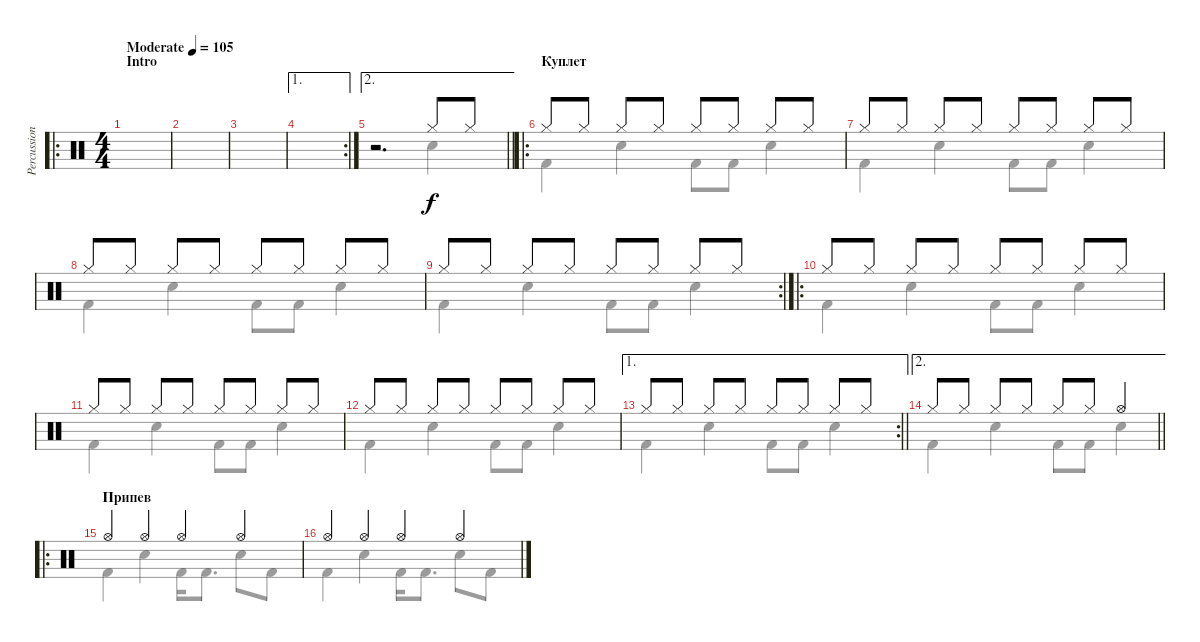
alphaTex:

\track ("Percussion" "Percussion") {instrument percussion}
\staff {score}
\articulation defaults
\voice
\ro
\ts (4 4)
\section ("" "Intro")
\tempo (105 "Moderate")
\clef neutral
\ks c
|
|
|
\ae 1
\rc 2
|
\ae 2
\barLineRight lightlight
r.2{d} "Hi-Hat (closed)".8 "Hi-Hat (closed)".8 |
\ro
\section ("" "Куплет")
"Hi-Hat (closed)".8 "Hi-Hat (closed)".8 "Hi-Hat (closed)".8 "Hi-Hat (closed)".8 "Hi-Hat (closed)".8 "Hi-Hat (closed)".8 "Hi-Hat (closed)".8 "Hi-Hat (closed)".8 |
"Hi-Hat (closed)".8 "Hi-Hat (closed)".8 "Hi-Hat (closed)".8 "Hi-Hat (closed)".8 "Hi-Hat (closed)".8 "Hi-Hat (closed)".8 "Hi-Hat (closed)".8 "Hi-Hat (closed)".8 |
"Hi-Hat (closed)".8 "Hi-Hat (closed)".8 "Hi-Hat (closed)".8 "Hi-Hat (closed)".8 "Hi-Hat (closed)".8 "Hi-Hat (closed)".8 "Hi-Hat (closed)".8 "Hi-Hat (closed)".8 |
\rc 2 "Hi-Hat (closed)".8 "Hi-Hat (closed)".8 "Hi-Hat (closed)".8 "Hi-Hat (closed)".8 "Hi-Hat (closed)".8 "Hi-Hat (closed)".8 "Hi-Hat (closed)".8 "Hi-Hat (closed)".8
|
\ro "Hi-Hat (closed)".8 "Hi-Hat (closed)".8 "Hi-Hat (closed)".8 "Hi-Hat (closed)".8 "Hi-Hat (closed)".8 "Hi-Hat (closed)".8 "Hi-Hat (closed)".8 "Hi-Hat (closed)".8
|
"Hi-Hat (closed)".8 "Hi-Hat (closed)".8 "Hi-Hat (closed)".8 "Hi-Hat (closed)".8 "Hi-Hat (closed)".8 "Hi-Hat (closed)".8 "Hi-Hat (closed)".8 "Hi-Hat (closed)".8 |
"Hi-Hat (closed)".8 "Hi-Hat (closed)".8 "Hi-Hat (closed)".8 "Hi-Hat (closed)".8 "Hi-Hat (closed)".8 "Hi-Hat (closed)".8 "Hi-Hat (closed)".8 "Hi-Hat (closed)".8 |
\ae 1
\rc 2
\barLineRight lightlight "Hi-Hat (closed)".8 "Hi-Hat (closed)".8 "Hi-Hat (closed)".8 "Hi-Hat (closed)".8 "Hi-Hat (closed)".8 "Hi-Hat (closed)".8 "Hi-Hat (closed)".8 "Hi-Hat (closed)".8
|
\ae 2
\barLineRight lightlight "Hi-Hat (closed)".8 "Hi-Hat (closed)".8 "Hi-Hat (closed)".8 "Hi-Hat (closed)".8 "Hi-Hat (closed)".8 "Hi-Hat (closed)".8 "Hi-Hat (open)".4
|
\ro
\section ("" "Припев")
"Hi-Hat (open)".4 "Hi-Hat (open)".4 "Hi-Hat (open)".4 "Hi-Hat (open)".4 |
"Hi-Hat (open)".4 "Hi-Hat (open)".4 "Hi-Hat (open)".4 "Hi-Hat (open)".4
\voice
\clef neutral
\ottava regular
\simile none
\ks c
|
|
|
|
\barLineRight lightlight
r.2{d} "Electric Snare (hit)".4 |
"Kick (hit) 2".4 "Electric Snare (hit)".4 "Kick (hit) 2".8 "Kick (hit) 2".8 "Electric Snare (hit)".4 |
"Kick (hit) 2".4 "Electric Snare (hit)".4 "Kick (hit) 2".8 "Kick (hit) 2".8 "Electric Snare (hit)".4 |
"Kick (hit) 2".4 "Electric Snare (hit)".4 "Kick (hit) 2".8 "Kick (hit) 2".8 "Electric Snare (hit)".4 |
"Kick (hit) 2".4 "Electric Snare (hit)".4 "Kick (hit) 2".8 "Kick (hit) 2".8 "Electric Snare (hit)".4 |
"Kick (hit) 2".4 "Electric Snare (hit)".4 "Kick (hit) 2".8 "Kick (hit) 2".8 "Electric Snare (hit)".4 |
"Kick (hit) 2".4 "Electric Snare (hit)".4 "Kick (hit) 2".8 "Kick (hit) 2".8 "Electric Snare (hit)".4 |
"Kick (hit) 2".4 "Electric Snare (hit)".4 "Kick (hit) 2".8 "Kick (hit) 2".8 "Electric Snare (hit)".4 |
\barLineRight lightlight "Kick (hit) 2".4 "Electric Snare (hit)".4 "Kick (hit) 2".8 "Kick (hit) 2".8 "Electric Snare (hit)".4
|
\barLineRight lightlight "Kick (hit) 2".4 "Electric Snare (hit)".4 "Kick (hit) 2".8 "Kick (hit) 2".8 "Electric Snare (hit)".4
|
"Kick (hit) 2".4 "Electric Snare (hit)".4 "Kick (hit) 2".16 "Kick (hit) 2".8{d} "Electric Snare (hit)".8 "Kick (hit) 2".8 |
"Kick (hit) 2".4 "Electric Snare (hit)".4 "Kick (hit) 2".16 "Kick (hit) 2".8{d} "Electric Snare (hit)".8 "Kick (hit) 2".8
